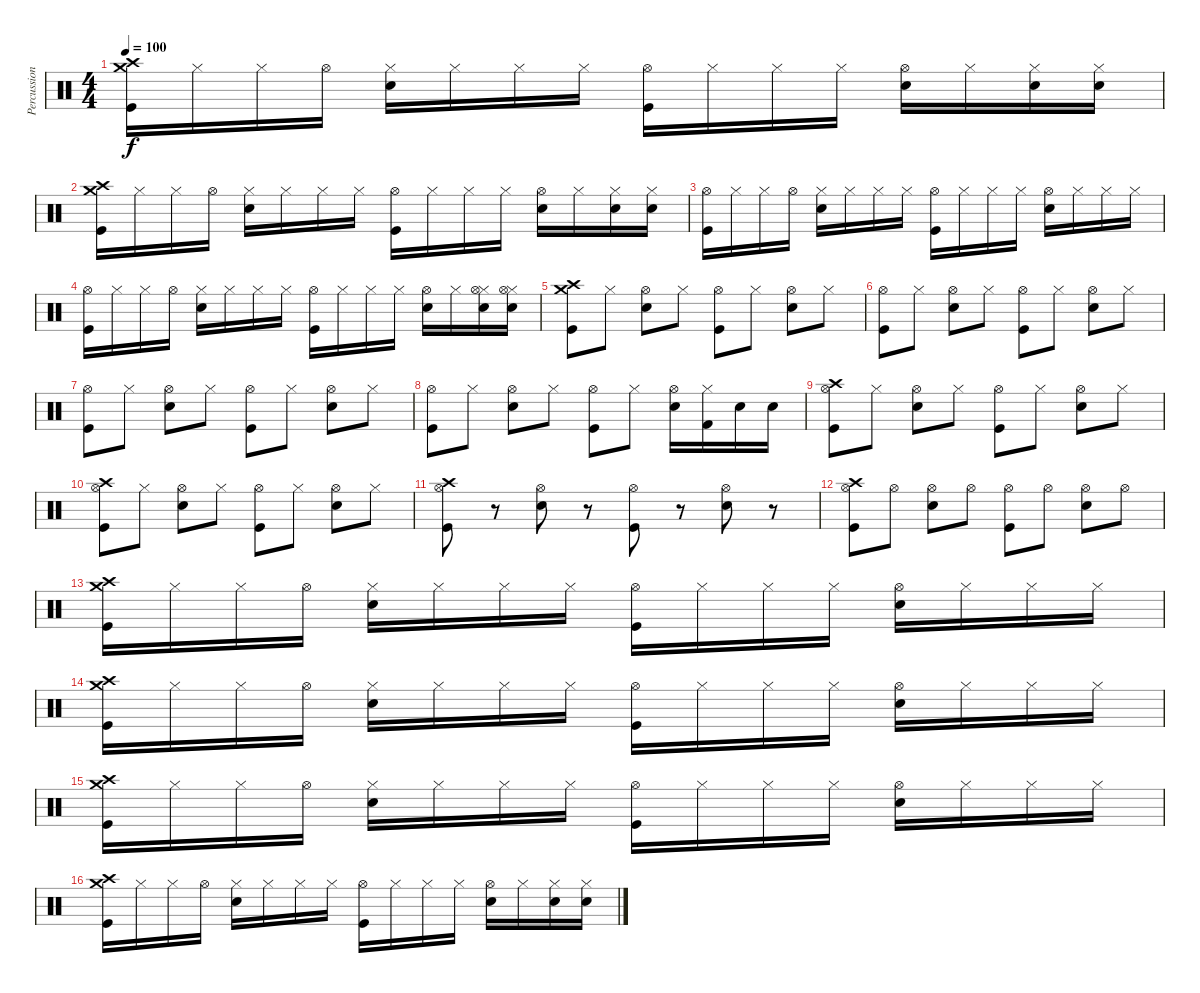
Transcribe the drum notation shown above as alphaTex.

\track ("Percussions" "Percussion") {instrument percussion}
\staff {score}
\articulation defaults
\ts (4 4)
\tempo 100
\clef neutral
\ks c
("Crash high (hit)" "Crash medium (hit)" "Kick (hit)").16{dy f} "Hi-Hat (closed)".16 "Hi-Hat (closed)".16 "Hi-Hat (open)".16 ("Hi-Hat (closed)" "Snare (hit) 2").16 "Hi-Hat (closed)".16 "Hi-Hat (closed)".16 "Hi-Hat (closed)".16 ("Hi-Hat (open)" "Kick (hit)").16 "Hi-Hat (closed)".16 "Hi-Hat (closed)".16 "Hi-Hat (closed)".16 ("Hi-Hat (open)" "Snare (hit) 2").16 "Hi-Hat (closed)".16 ("Hi-Hat (closed)" "Snare (hit) 2").16 ("Hi-Hat (closed)" "Snare (hit) 2").16 |
("Crash high (hit)" "Crash medium (hit)" "Kick (hit)").16 "Hi-Hat (closed)".16 "Hi-Hat (closed)".16 "Hi-Hat (open)".16 ("Hi-Hat (closed)" "Snare (hit) 2").16 "Hi-Hat (closed)".16 "Hi-Hat (closed)".16 "Hi-Hat (closed)".16 ("Hi-Hat (open)" "Kick (hit)").16 "Hi-Hat (closed)".16 "Hi-Hat (closed)".16 "Hi-Hat (closed)".16 ("Hi-Hat (open)" "Snare (hit) 2").16 "Hi-Hat (closed)".16 ("Hi-Hat (closed)" "Snare (hit) 2").16 ("Hi-Hat (closed)" "Snare (hit) 2").16 |
("Hi-Hat (open)" "Kick (hit)").16 "Hi-Hat (closed)".16 "Hi-Hat (closed)".16 "Hi-Hat (open)".16 ("Hi-Hat (closed)" "Snare (hit) 2").16 "Hi-Hat (closed)".16 "Hi-Hat (closed)".16 "Hi-Hat (closed)".16 ("Hi-Hat (open)" "Kick (hit)").16 "Hi-Hat (closed)".16 "Hi-Hat (closed)".16 "Hi-Hat (closed)".16 ("Hi-Hat (open)" "Snare (hit) 2").16 "Hi-Hat (closed)".16 "Hi-Hat (closed)".16 "Hi-Hat (closed)".16 |
("Hi-Hat (open)" "Kick (hit)").16 "Hi-Hat (closed)".16 "Hi-Hat (closed)".16 "Hi-Hat (open)".16 ("Hi-Hat (closed)" "Snare (hit) 2").16 "Hi-Hat (closed)".16 "Hi-Hat (closed)".16 "Hi-Hat (closed)".16 ("Hi-Hat (open)" "Kick (hit)").16 "Hi-Hat (closed)".16 "Hi-Hat (closed)".16 "Hi-Hat (closed)".16 ("Hi-Hat (open)" "Snare (hit) 2").16 "Hi-Hat (closed)".16 ("Hi-Hat (closed)" "Snare (hit) 2" "Hi-Hat (open)").16 ("Hi-Hat (closed)" "Snare (hit) 2" "Hi-Hat (open)").16 |
("Crash high (hit)" "Crash medium (hit)" "Kick (hit)").8 "Hi-Hat (closed)".8 ("Hi-Hat (open)" "Snare (hit) 2").8 "Hi-Hat (closed)".8 ("Hi-Hat (open)" "Kick (hit)").8 "Hi-Hat (closed)".8 ("Hi-Hat (open)" "Snare (hit) 2").8 "Hi-Hat (closed)".8 |
("Hi-Hat (open)" "Kick (hit)").8 "Hi-Hat (closed)".8 ("Hi-Hat (open)" "Snare (hit) 2").8 "Hi-Hat (closed)".8 ("Hi-Hat (open)" "Kick (hit)").8 "Hi-Hat (closed)".8 ("Hi-Hat (open)" "Snare (hit) 2").8 "Hi-Hat (closed)".8 |
("Hi-Hat (open)" "Kick (hit)").8 "Hi-Hat (closed)".8 ("Hi-Hat (open)" "Snare (hit) 2").8 "Hi-Hat (closed)".8 ("Hi-Hat (open)" "Kick (hit)").8 "Hi-Hat (closed)".8 ("Hi-Hat (open)" "Snare (hit) 2").8 "Hi-Hat (closed)".8 |
("Hi-Hat (open)" "Kick (hit)").8 "Hi-Hat (closed)".8 ("Hi-Hat (open)" "Snare (hit) 2").8 "Hi-Hat (closed)".8 ("Hi-Hat (open)" "Kick (hit)").8 "Hi-Hat (closed)".8 ("Hi-Hat (open)" "Snare (hit) 2").16 ("Hi-Hat (closed)" "Kick (hit) 2").16 "Snare (hit) 2".16 "Snare (hit) 2".16 |
("Hi-Hat (open)" "Kick (hit)" "Crash high (hit)").8 "Hi-Hat (closed)".8 ("Hi-Hat (open)" "Snare (hit) 2").8 "Hi-Hat (closed)".8 ("Hi-Hat (open)" "Kick (hit)").8 "Hi-Hat (closed)".8 ("Hi-Hat (open)" "Snare (hit) 2").8 "Hi-Hat (closed)".8 |
("Hi-Hat (open)" "Kick (hit)" "Crash high (hit)").8 "Hi-Hat (closed)".8 ("Hi-Hat (open)" "Snare (hit) 2").8 "Hi-Hat (closed)".8 ("Hi-Hat (open)" "Kick (hit)").8 "Hi-Hat (closed)".8 ("Hi-Hat (open)" "Snare (hit) 2").8 "Hi-Hat (closed)".8 |
("Hi-Hat (open)" "Kick (hit)" "Crash high (hit)").8 r.8 ("Hi-Hat (open)" "Snare (hit) 2").8 r.8 ("Hi-Hat (open)" "Kick (hit)").8 r.8 ("Hi-Hat (open)" "Snare (hit) 2").8 r.8 |
("Hi-Hat (open)" "Kick (hit)" "Crash high (hit)").8 "Hi-Hat (open)".8 ("Hi-Hat (open)" "Snare (hit) 2").8 "Hi-Hat (open)".8 ("Hi-Hat (open)" "Kick (hit)").8 "Hi-Hat (open)".8 ("Hi-Hat (open)" "Snare (hit) 2").8 "Hi-Hat (open)".8 |
("Crash high (hit)" "Kick (hit)" "Crash medium (hit)").16 "Hi-Hat (closed)".16 "Hi-Hat (closed)".16 "Hi-Hat (open)".16 ("Hi-Hat (closed)" "Snare (hit) 2").16 "Hi-Hat (closed)".16 "Hi-Hat (closed)".16 "Hi-Hat (closed)".16 ("Hi-Hat (open)" "Kick (hit)").16 "Hi-Hat (closed)".16 "Hi-Hat (closed)".16 "Hi-Hat (closed)".16 ("Hi-Hat (open)" "Snare (hit) 2").16 "Hi-Hat (closed)".16 "Hi-Hat (closed)".16 "Hi-Hat (closed)".16 |
("Crash medium (hit)" "Crash high (hit)" "Kick (hit)").16 "Hi-Hat (closed)".16 "Hi-Hat (closed)".16 "Hi-Hat (open)".16 ("Hi-Hat (closed)" "Snare (hit) 2").16 "Hi-Hat (closed)".16 "Hi-Hat (closed)".16 "Hi-Hat (closed)".16 ("Hi-Hat (open)" "Kick (hit)").16 "Hi-Hat (closed)".16 "Hi-Hat (closed)".16 "Hi-Hat (closed)".16 ("Hi-Hat (open)" "Snare (hit) 2").16 "Hi-Hat (closed)".16 "Hi-Hat (closed)".16 "Hi-Hat (closed)".16 |
("Crash high (hit)" "Crash medium (hit)" "Kick (hit)").16 "Hi-Hat (closed)".16 "Hi-Hat (closed)".16 "Hi-Hat (open)".16 ("Hi-Hat (closed)" "Snare (hit) 2").16 "Hi-Hat (closed)".16 "Hi-Hat (closed)".16 "Hi-Hat (closed)".16 ("Hi-Hat (open)" "Kick (hit)").16 "Hi-Hat (closed)".16 "Hi-Hat (closed)".16 "Hi-Hat (closed)".16 ("Hi-Hat (open)" "Snare (hit) 2").16 "Hi-Hat (closed)".16 "Hi-Hat (closed)".16 "Hi-Hat (closed)".16 |
("Crash high (hit)" "Crash medium (hit)" "Kick (hit)").16 "Hi-Hat (closed)".16 "Hi-Hat (closed)".16 "Hi-Hat (open)".16 ("Hi-Hat (closed)" "Snare (hit) 2").16 "Hi-Hat (closed)".16 "Hi-Hat (closed)".16 "Hi-Hat (closed)".16 ("Hi-Hat (open)" "Kick (hit)").16 "Hi-Hat (closed)".16 "Hi-Hat (closed)".16 "Hi-Hat (closed)".16 ("Hi-Hat (open)" "Snare (hit) 2").16 "Hi-Hat (closed)".16 ("Hi-Hat (closed)" "Snare (hit) 2").16 ("Hi-Hat (closed)" "Snare (hit) 2").16
